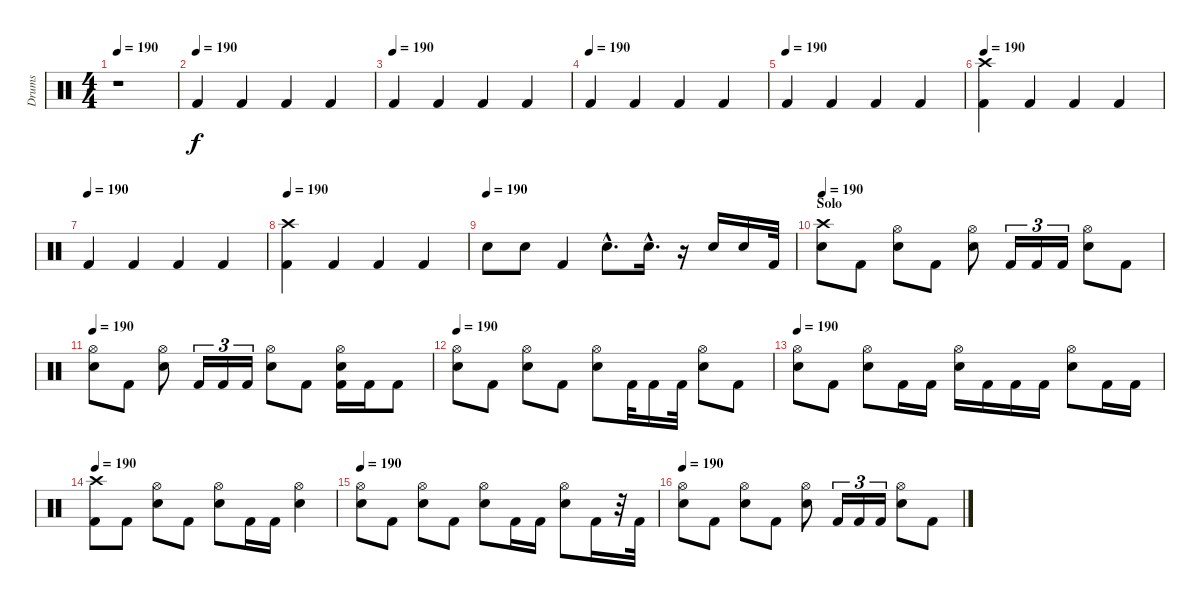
\track ("Drums" "Drums") {instrument percussion}
\staff {score}
\articulation defaults
\ts (4 4)
\tempo 190
\clef neutral
\ks c
r.1{dy f} |
\tempo (190)
"Kick (hit) 2".4 "Kick (hit) 2".4 "Kick (hit) 2".4 "Kick (hit) 2".4 |
\tempo (190)
"Kick (hit) 2".4 "Kick (hit) 2".4 "Kick (hit) 2".4 "Kick (hit) 2".4 |
\tempo (190)
"Kick (hit) 2".4 "Kick (hit) 2".4 "Kick (hit) 2".4 "Kick (hit) 2".4 |
\tempo (190)
"Kick (hit) 2".4 "Kick (hit) 2".4 "Kick (hit) 2".4 "Kick (hit) 2".4 |
\tempo 190
("Crash high (hit)" "Kick (hit) 2").4 "Kick (hit) 2".4 "Kick (hit) 2".4 "Kick (hit) 2".4 |
\tempo (190)
"Kick (hit) 2".4 "Kick (hit) 2".4 "Kick (hit) 2".4 "Kick (hit) 2".4 |
\tempo 190
("Crash high (hit)" "Kick (hit) 2").4 "Kick (hit) 2".4 "Kick (hit) 2".4 "Kick (hit) 2".4 |
\tempo (190)
"Electric Snare (hit)".8 "Electric Snare (hit)".8 "Kick (hit) 2".4 "Electric Snare (hit)"{hac}.8{d} "Electric Snare (hit)"{hac}.16{d} r.16 "Electric Snare (hit)".16 "Electric Snare (hit)".16 "Kick (hit) 2".32 |
\section ("" "Solo")
\tempo 190
("Crash high (hit)" "Electric Snare (hit)").8 "Kick (hit) 2".8 ("Hi-Hat (open)" "Electric Snare (hit)").8 "Kick (hit) 2".8 ("Hi-Hat (open)" "Electric Snare (hit)").8 "Kick (hit) 2".16{tu (3 2)} "Kick (hit) 2".16{tu (3 2)} "Kick (hit) 2".16{tu (3 2)} ("Hi-Hat (open)" "Electric Snare (hit)").8 "Kick (hit) 2".8 |
\tempo 190
("Hi-Hat (open)" "Electric Snare (hit)").8 "Kick (hit) 2".8 ("Hi-Hat (open)" "Electric Snare (hit)").8 "Kick (hit) 2".16{tu (3 2)} "Kick (hit) 2".16{tu (3 2)} "Kick (hit) 2".16{tu (3 2)} ("Hi-Hat (open)" "Electric Snare (hit)").8 "Kick (hit) 2".8 ("Hi-Hat (open)" "Electric Snare (hit)" "Kick (hit) 2").16 "Kick (hit) 2".16 "Kick (hit) 2".8 |
\tempo 190
("Hi-Hat (open)" "Electric Snare (hit)").8 "Kick (hit) 2".8 ("Hi-Hat (open)" "Electric Snare (hit)").8 "Kick (hit) 2".8 ("Hi-Hat (open)" "Electric Snare (hit)").8 "Kick (hit) 2".32 "Kick (hit) 2".16 "Kick (hit) 2".32 ("Hi-Hat (open)" "Electric Snare (hit)").8 "Kick (hit) 2".8 |
\tempo 190
("Hi-Hat (open)" "Electric Snare (hit)").8 "Kick (hit) 2".8 ("Hi-Hat (open)" "Electric Snare (hit)").8 "Kick (hit) 2".16 "Kick (hit) 2".16 ("Hi-Hat (open)" "Electric Snare (hit)").16 "Kick (hit) 2".16 "Kick (hit) 2".16 "Kick (hit) 2".16 ("Hi-Hat (open)" "Electric Snare (hit)").8 "Kick (hit) 2".16 "Kick (hit) 2".16 |
\tempo 190
("Crash high (hit)" "Kick (hit) 2").8 "Kick (hit) 2".8 ("Hi-Hat (open)" "Electric Snare (hit)").8 "Kick (hit) 2".8 ("Hi-Hat (open)" "Electric Snare (hit)").8 "Kick (hit) 2".16 "Kick (hit) 2".16 ("Hi-Hat (open)" "Electric Snare (hit)").4 |
\tempo 190
("Hi-Hat (open)" "Electric Snare (hit)").8 "Kick (hit) 2".8 ("Hi-Hat (open)" "Electric Snare (hit)").8 "Kick (hit) 2".8 ("Hi-Hat (open)" "Electric Snare (hit)").8 "Kick (hit) 2".16 "Kick (hit) 2".16 ("Hi-Hat (open)" "Electric Snare (hit)").8 "Kick (hit) 2".16 r.32 "Kick (hit) 2".32 |
\tempo 190
("Hi-Hat (open)" "Electric Snare (hit)").8 "Kick (hit) 2".8 ("Hi-Hat (open)" "Electric Snare (hit)").8 "Kick (hit) 2".8 ("Hi-Hat (open)" "Electric Snare (hit)").8 "Kick (hit) 2".16{tu (3 2)} "Kick (hit) 2".16{tu (3 2)} "Kick (hit) 2".16{tu (3 2)} ("Hi-Hat (open)" "Electric Snare (hit)").8 "Kick (hit) 2".8
